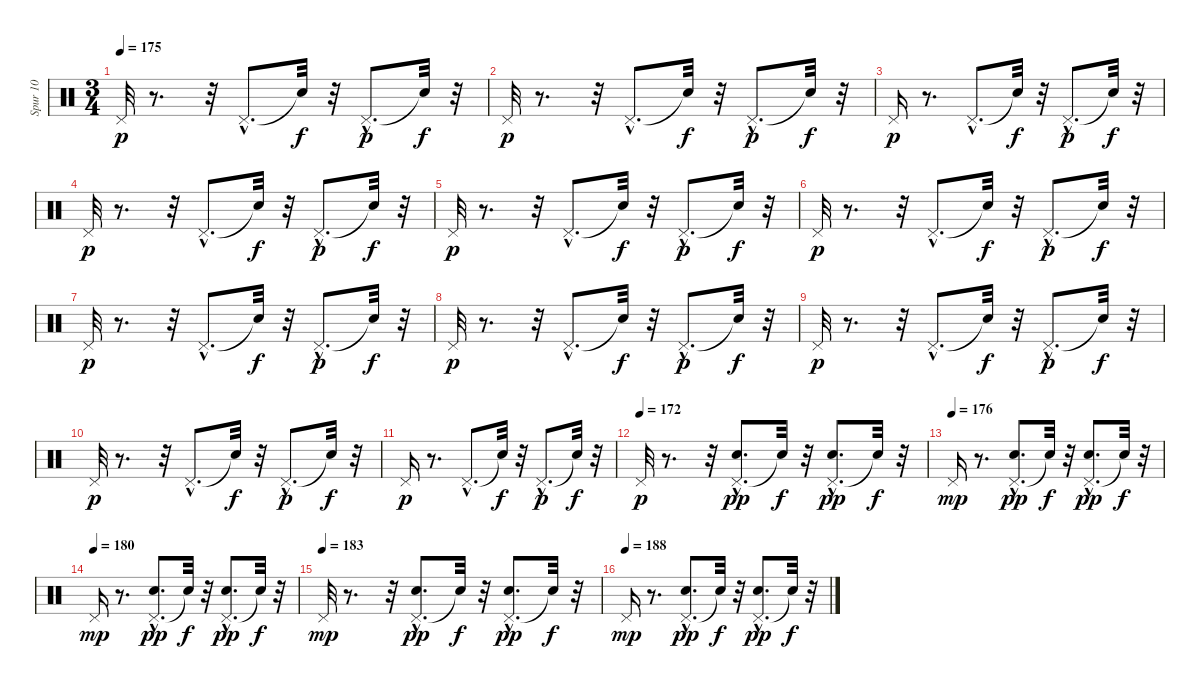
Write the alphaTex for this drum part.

\track ("Spur 10" "Spur 10") {instrument percussion}
\staff {score}
\articulation defaults
\ts (3 4)
\tempo 175
\clef neutral
\ks c "Pedal Hi-Hat (hit)".32{dy p}
r.8{d} r.32 "Pedal Hi-Hat (hit)"{hac}.8{d} "Snare (hit)"{t}.32{dy f} r.32 "Pedal Hi-Hat (hit)"{hac}.8{d dy p} "Snare (hit)"{t}.32{dy f} r.32 |
"Pedal Hi-Hat (hit)".32{dy p} r.8{d} r.32 "Pedal Hi-Hat (hit)"{hac}.8{d} "Snare (hit)"{t}.32{dy f} r.32 "Pedal Hi-Hat (hit)"{hac}.8{d dy p} "Snare (hit)"{t}.32{dy f} r.32 |
"Pedal Hi-Hat (hit)".16{dy p} r.8{d} "Pedal Hi-Hat (hit)"{hac}.8{d} "Snare (hit)"{t}.32{dy f} r.32 "Pedal Hi-Hat (hit)"{hac}.8{d dy p} "Snare (hit)"{t}.32{dy f} r.32 |
"Pedal Hi-Hat (hit)".32{dy p} r.8{d} r.32 "Pedal Hi-Hat (hit)"{hac}.8{d} "Snare (hit)"{t}.32{dy f} r.32 "Pedal Hi-Hat (hit)"{hac}.8{d dy p} "Snare (hit)"{t}.32{dy f} r.32 |
"Pedal Hi-Hat (hit)".32{dy p} r.8{d} r.32 "Pedal Hi-Hat (hit)"{hac}.8{d} "Snare (hit)"{t}.32{dy f} r.32 "Pedal Hi-Hat (hit)"{hac}.8{d dy p} "Snare (hit)"{t}.32{dy f} r.32 |
"Pedal Hi-Hat (hit)".32{dy p} r.8{d} r.32 "Pedal Hi-Hat (hit)"{hac}.8{d} "Snare (hit)"{t}.32{dy f} r.32 "Pedal Hi-Hat (hit)"{hac}.8{d dy p} "Snare (hit)"{t}.32{dy f} r.32 |
"Pedal Hi-Hat (hit)".32{dy p} r.8{d} r.32 "Pedal Hi-Hat (hit)"{hac}.8{d} "Snare (hit)"{t}.32{dy f} r.32 "Pedal Hi-Hat (hit)"{hac}.8{d dy p} "Snare (hit)"{t}.32{dy f} r.32 |
"Pedal Hi-Hat (hit)".32{dy p} r.8{d} r.32 "Pedal Hi-Hat (hit)"{hac}.8{d} "Snare (hit)"{t}.32{dy f} r.32 "Pedal Hi-Hat (hit)"{hac}.8{d dy p} "Snare (hit)"{t}.32{dy f} r.32 |
"Pedal Hi-Hat (hit)".32{dy p} r.8{d} r.32 "Pedal Hi-Hat (hit)"{hac}.8{d} "Snare (hit)"{t}.32{dy f} r.32 "Pedal Hi-Hat (hit)"{hac}.8{d dy p} "Snare (hit)"{t}.32{dy f} r.32 |
"Pedal Hi-Hat (hit)".32{dy p} r.8{d} r.32 "Pedal Hi-Hat (hit)"{hac}.8{d} "Snare (hit)"{t}.32{dy f} r.32 "Pedal Hi-Hat (hit)"{hac}.8{d dy p} "Snare (hit)"{t}.32{dy f} r.32 |
"Pedal Hi-Hat (hit)".16{dy p} r.8{d} "Pedal Hi-Hat (hit)"{hac}.8{d} "Snare (hit)"{t}.32{dy f} r.32 "Pedal Hi-Hat (hit)"{hac}.8{d dy p} "Snare (hit)"{t}.32{dy f} r.32 |
\tempo (172)
"Pedal Hi-Hat (hit)".32{dy p} r.8{d} r.32 ("Pedal Hi-Hat (hit)"{hac} "Snare (hit) 2").8{d dy pp} "Snare (hit)"{t}.32{dy f} r.32 ("Pedal Hi-Hat (hit)"{hac} "Snare (hit) 2").8{d dy pp} "Snare (hit)"{t}.32{dy f} r.32 |
\tempo (176)
"Pedal Hi-Hat (hit)".16{dy mp} r.8{d} ("Pedal Hi-Hat (hit)"{hac} "Snare (hit) 2").8{d dy pp} "Snare (hit)"{t}.32{dy f} r.32 ("Pedal Hi-Hat (hit)"{hac} "Snare (hit) 2").8{d dy pp} "Snare (hit)"{t}.32{dy f} r.32 |
\tempo (180)
"Pedal Hi-Hat (hit)".16{dy mp} r.8{d} ("Pedal Hi-Hat (hit)"{hac} "Snare (hit) 2").8{d dy pp} "Snare (hit)"{t}.32{dy f} r.32 ("Pedal Hi-Hat (hit)"{hac} "Snare (hit) 2").8{d dy pp} "Snare (hit)"{t}.32{dy f} r.32 |
\tempo (183)
"Pedal Hi-Hat (hit)".32{dy mp} r.8{d} r.32 ("Pedal Hi-Hat (hit)"{hac} "Snare (hit) 2").8{d dy pp} "Snare (hit)"{t}.32{dy f} r.32 ("Pedal Hi-Hat (hit)"{hac} "Snare (hit) 2").8{d dy pp} "Snare (hit)"{t}.32{dy f} r.32 |
\tempo (188)
"Pedal Hi-Hat (hit)".16{dy mp} r.8{d} ("Pedal Hi-Hat (hit)"{hac} "Snare (hit) 2").8{d dy pp} "Snare (hit)"{t}.32{dy f} r.32 ("Pedal Hi-Hat (hit)"{hac} "Snare (hit) 2").8{d dy pp} "Snare (hit)"{t}.32{dy f} r.32
